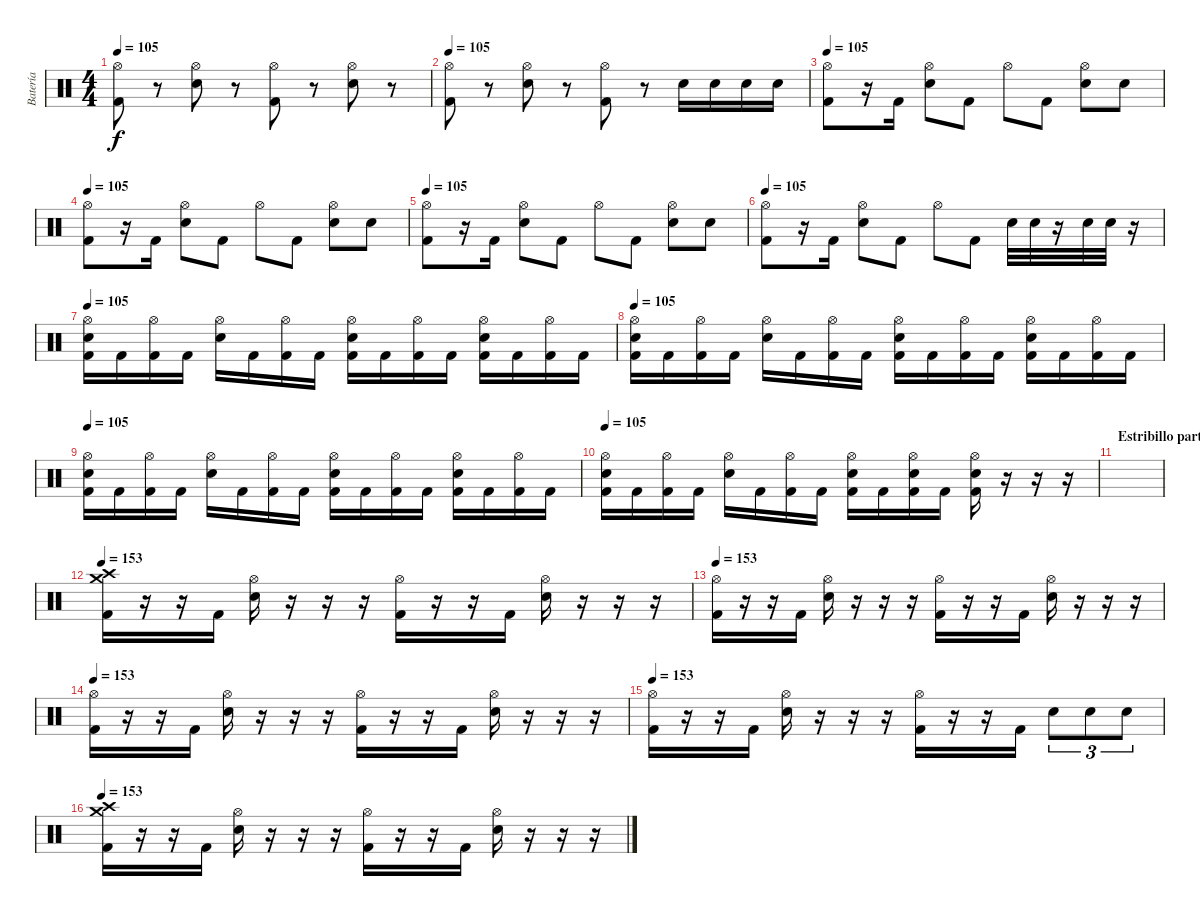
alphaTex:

\track ("Batería" "Batería") {instrument percussion}
\staff {score}
\articulation defaults
\ts (4 4)
\tempo 105
\clef neutral
\ks c
("Hi-Hat (open)" "Kick (hit) 2").8{dy f} r.8 ("Hi-Hat (open)" "Snare (hit) 2").8 r.8 ("Hi-Hat (open)" "Kick (hit) 2").8 r.8 ("Hi-Hat (open)" "Snare (hit) 2").8 r.8 |
\tempo 105
("Hi-Hat (open)" "Kick (hit) 2").8 r.8 ("Hi-Hat (open)" "Snare (hit) 2").8 r.8 ("Hi-Hat (open)" "Kick (hit) 2").8 r.8 "Snare (hit) 2".16 "Snare (hit) 2".16 "Snare (hit) 2".16 "Snare (hit) 2".16 |
\tempo 105
("Hi-Hat (open)" "Kick (hit) 2").8 r.16 "Kick (hit) 2".16 ("Hi-Hat (open)" "Snare (hit) 2").8 "Kick (hit) 2".8 "Hi-Hat (open)".8 "Kick (hit) 2".8 ("Hi-Hat (open)" "Snare (hit) 2").8 "Snare (hit) 2".8 |
\tempo 105
("Hi-Hat (open)" "Kick (hit) 2").8 r.16 "Kick (hit) 2".16 ("Hi-Hat (open)" "Snare (hit) 2").8 "Kick (hit) 2".8 "Hi-Hat (open)".8 "Kick (hit) 2".8 ("Hi-Hat (open)" "Snare (hit) 2").8 "Snare (hit) 2".8 |
\tempo 105
("Hi-Hat (open)" "Kick (hit) 2").8 r.16 "Kick (hit) 2".16 ("Hi-Hat (open)" "Snare (hit) 2").8 "Kick (hit) 2".8 "Hi-Hat (open)".8 "Kick (hit) 2".8 ("Hi-Hat (open)" "Snare (hit) 2").8 "Snare (hit) 2".8 |
\tempo 105
("Hi-Hat (open)" "Kick (hit) 2").8 r.16 "Kick (hit) 2".16 ("Hi-Hat (open)" "Snare (hit) 2").8 "Kick (hit) 2".8 "Hi-Hat (open)".8 "Kick (hit) 2".8 "Snare (hit) 2".32 "Snare (hit) 2".32 r.16 "Snare (hit) 2".32 "Snare (hit) 2".32 r.16 |
\tempo 105
("Hi-Hat (open)" "Kick (hit) 2" "Snare (hit) 2").16 "Kick (hit) 2".16 ("Hi-Hat (open)" "Kick (hit) 2").16 "Kick (hit) 2".16 ("Hi-Hat (open)" "Snare (hit) 2").16 "Kick (hit) 2".16 ("Hi-Hat (open)" "Kick (hit) 2").16 "Kick (hit) 2".16 ("Hi-Hat (open)" "Kick (hit) 2" "Snare (hit) 2").16 "Kick (hit) 2".16 ("Hi-Hat (open)" "Kick (hit) 2").16 "Kick (hit) 2".16 ("Hi-Hat (open)" "Kick (hit) 2" "Snare (hit) 2").16 "Kick (hit) 2".16 ("Hi-Hat (open)" "Kick (hit) 2").16 "Kick (hit) 2".16 |
\tempo 105
("Hi-Hat (open)" "Kick (hit) 2" "Snare (hit) 2").16 "Kick (hit) 2".16 ("Hi-Hat (open)" "Kick (hit) 2").16 "Kick (hit) 2".16 ("Hi-Hat (open)" "Snare (hit) 2").16 "Kick (hit) 2".16 ("Hi-Hat (open)" "Kick (hit) 2").16 "Kick (hit) 2".16 ("Hi-Hat (open)" "Kick (hit) 2" "Snare (hit) 2").16 "Kick (hit) 2".16 ("Hi-Hat (open)" "Kick (hit) 2").16 "Kick (hit) 2".16 ("Hi-Hat (open)" "Kick (hit) 2" "Snare (hit) 2").16 "Kick (hit) 2".16 ("Hi-Hat (open)" "Kick (hit) 2").16 "Kick (hit) 2".16 |
\tempo 105
("Hi-Hat (open)" "Kick (hit) 2" "Snare (hit) 2").16 "Kick (hit) 2".16 ("Hi-Hat (open)" "Kick (hit) 2").16 "Kick (hit) 2".16 ("Hi-Hat (open)" "Snare (hit) 2").16 "Kick (hit) 2".16 ("Hi-Hat (open)" "Kick (hit) 2").16 "Kick (hit) 2".16 ("Hi-Hat (open)" "Kick (hit) 2" "Snare (hit) 2").16 "Kick (hit) 2".16 ("Hi-Hat (open)" "Kick (hit) 2").16 "Kick (hit) 2".16 ("Hi-Hat (open)" "Kick (hit) 2" "Snare (hit) 2").16 "Kick (hit) 2".16 ("Hi-Hat (open)" "Kick (hit) 2").16 "Kick (hit) 2".16 |
\tempo 105
("Hi-Hat (open)" "Kick (hit) 2" "Snare (hit) 2").16 "Kick (hit) 2".16 ("Hi-Hat (open)" "Kick (hit) 2").16 "Kick (hit) 2".16 ("Hi-Hat (open)" "Snare (hit) 2").16 "Kick (hit) 2".16 ("Hi-Hat (open)" "Kick (hit) 2").16 "Kick (hit) 2".16 ("Hi-Hat (open)" "Kick (hit) 2" "Snare (hit) 2").16 "Kick (hit) 2".16 ("Hi-Hat (open)" "Kick (hit) 2" "Snare (hit) 2").16 "Kick (hit) 2".16 ("Hi-Hat (open)" "Kick (hit) 2" "Snare (hit) 2").16 r.16 r.16 r.16 |
\section ("" "Estribillo parte 1")
|
\tempo 153
("Crash medium (hit)" "Crash high (hit)" "Kick (hit) 2").16 r.16 r.16 "Kick (hit) 2".16 ("Hi-Hat (open)" "Snare (hit) 2").16 r.16 r.16 r.16 ("Hi-Hat (open)" "Kick (hit) 2").16 r.16 r.16 "Kick (hit) 2".16 ("Hi-Hat (open)" "Snare (hit) 2").16 r.16 r.16 r.16 |
\tempo 153
("Hi-Hat (open)" "Kick (hit) 2").16 r.16 r.16 "Kick (hit) 2".16 ("Hi-Hat (open)" "Snare (hit) 2").16 r.16 r.16 r.16 ("Hi-Hat (open)" "Kick (hit) 2").16 r.16 r.16 "Kick (hit) 2".16 ("Hi-Hat (open)" "Snare (hit) 2").16 r.16 r.16 r.16 |
\tempo 153
("Hi-Hat (open)" "Kick (hit) 2").16 r.16 r.16 "Kick (hit) 2".16 ("Hi-Hat (open)" "Snare (hit) 2").16 r.16 r.16 r.16 ("Hi-Hat (open)" "Kick (hit) 2").16 r.16 r.16 "Kick (hit) 2".16 ("Hi-Hat (open)" "Snare (hit) 2").16 r.16 r.16 r.16 |
\tempo 153
("Hi-Hat (open)" "Kick (hit) 2").16 r.16 r.16 "Kick (hit) 2".16 ("Hi-Hat (open)" "Snare (hit) 2").16 r.16 r.16 r.16 ("Hi-Hat (open)" "Kick (hit) 2").16 r.16 r.16 "Kick (hit) 2".16 "Snare (hit) 2".8{tu (3 2)} "Snare (hit) 2".8{tu (3 2)} "Snare (hit) 2".8{tu (3 2)} |
\tempo 153
("Crash medium (hit)" "Crash high (hit)" "Kick (hit) 2").16 r.16 r.16 "Kick (hit) 2".16 ("Hi-Hat (open)" "Snare (hit) 2").16 r.16 r.16 r.16 ("Hi-Hat (open)" "Kick (hit) 2").16 r.16 r.16 "Kick (hit) 2".16 ("Hi-Hat (open)" "Snare (hit) 2").16 r.16 r.16 r.16
